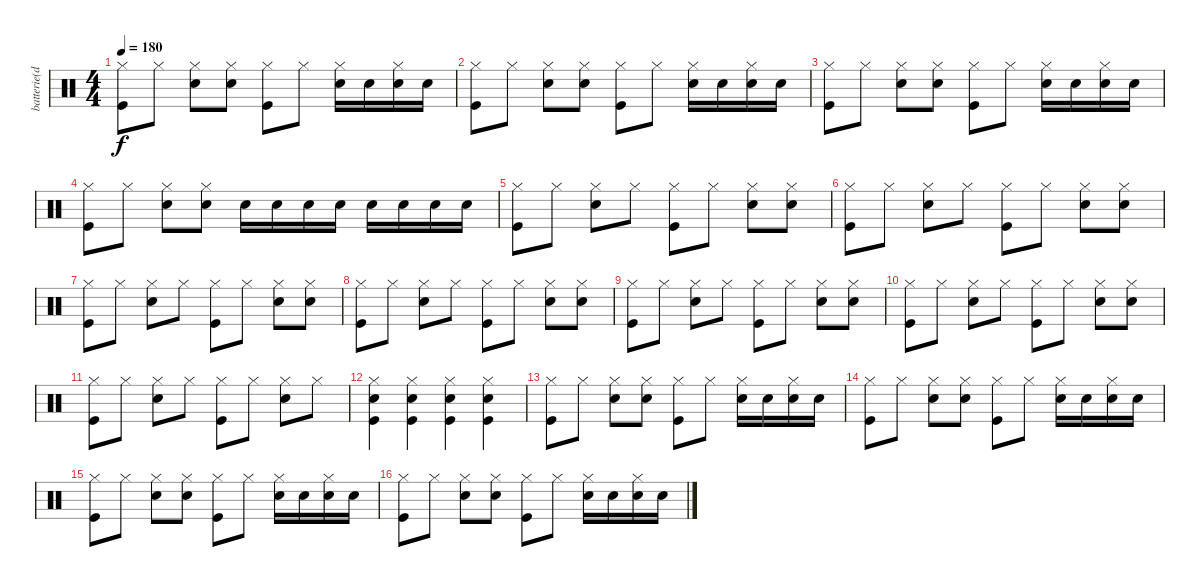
\track ("batterie(dave)" "batterie(d") {instrument percussion}
\staff {score}
\articulation defaults
\ts (4 4)
\tempo 180
\clef neutral
\ks c
("Hi-Hat (closed)" "Kick (hit)").8{dy f} "Hi-Hat (closed)".8 ("Hi-Hat (closed)" "Snare (hit) 2").8 ("Hi-Hat (closed)" "Snare (hit) 2").8 ("Hi-Hat (closed)" "Kick (hit)").8 "Hi-Hat (closed)".8 ("Hi-Hat (closed)" "Snare (hit) 2").16 "Snare (hit) 2".16 ("Hi-Hat (closed)" "Snare (hit) 2").16 "Snare (hit) 2".16 |
("Hi-Hat (closed)" "Kick (hit)").8 "Hi-Hat (closed)".8 ("Hi-Hat (closed)" "Snare (hit) 2").8 ("Hi-Hat (closed)" "Snare (hit) 2").8 ("Hi-Hat (closed)" "Kick (hit)").8 "Hi-Hat (closed)".8 ("Hi-Hat (closed)" "Snare (hit) 2").16 "Snare (hit) 2".16 ("Hi-Hat (closed)" "Snare (hit) 2").16 "Snare (hit) 2".16 |
("Hi-Hat (closed)" "Kick (hit)").8 "Hi-Hat (closed)".8 ("Hi-Hat (closed)" "Snare (hit) 2").8 ("Hi-Hat (closed)" "Snare (hit) 2").8 ("Hi-Hat (closed)" "Kick (hit)").8 "Hi-Hat (closed)".8 ("Hi-Hat (closed)" "Snare (hit) 2").16 "Snare (hit) 2".16 ("Hi-Hat (closed)" "Snare (hit) 2").16 "Snare (hit) 2".16 |
("Hi-Hat (closed)" "Kick (hit)").8 "Hi-Hat (closed)".8 ("Hi-Hat (closed)" "Snare (hit) 2").8 ("Hi-Hat (closed)" "Snare (hit) 2").8 "Snare (hit) 2".16 "Snare (hit) 2".16 "Snare (hit) 2".16 "Snare (hit) 2".16 "Snare (hit) 2".16 "Snare (hit) 2".16 "Snare (hit) 2".16 "Snare (hit) 2".16 |
("Hi-Hat (closed)" "Kick (hit)").8 "Hi-Hat (closed)".8 ("Hi-Hat (closed)" "Snare (hit) 2").8 "Hi-Hat (closed)".8 ("Hi-Hat (closed)" "Kick (hit)").8 "Hi-Hat (closed)".8 ("Hi-Hat (closed)" "Snare (hit) 2").8 ("Hi-Hat (closed)" "Snare (hit) 2").8 |
("Hi-Hat (closed)" "Kick (hit)").8 "Hi-Hat (closed)".8 ("Hi-Hat (closed)" "Snare (hit) 2").8 "Hi-Hat (closed)".8 ("Hi-Hat (closed)" "Kick (hit)").8 "Hi-Hat (closed)".8 ("Hi-Hat (closed)" "Snare (hit) 2").8 ("Hi-Hat (closed)" "Snare (hit) 2").8 |
("Hi-Hat (closed)" "Kick (hit)").8 "Hi-Hat (closed)".8 ("Hi-Hat (closed)" "Snare (hit) 2").8 "Hi-Hat (closed)".8 ("Hi-Hat (closed)" "Kick (hit)").8 "Hi-Hat (closed)".8 ("Hi-Hat (closed)" "Snare (hit) 2").8 ("Hi-Hat (closed)" "Snare (hit) 2").8 |
("Hi-Hat (closed)" "Kick (hit)").8 "Hi-Hat (closed)".8 ("Hi-Hat (closed)" "Snare (hit) 2").8 "Hi-Hat (closed)".8 ("Hi-Hat (closed)" "Kick (hit)").8 "Hi-Hat (closed)".8 ("Hi-Hat (closed)" "Snare (hit) 2").8 ("Hi-Hat (closed)" "Snare (hit) 2").8 |
("Hi-Hat (closed)" "Kick (hit)").8 "Hi-Hat (closed)".8 ("Hi-Hat (closed)" "Snare (hit) 2").8 "Hi-Hat (closed)".8 ("Hi-Hat (closed)" "Kick (hit)").8 "Hi-Hat (closed)".8 ("Hi-Hat (closed)" "Snare (hit) 2").8 ("Hi-Hat (closed)" "Snare (hit) 2").8 |
("Hi-Hat (closed)" "Kick (hit)").8 "Hi-Hat (closed)".8 ("Hi-Hat (closed)" "Snare (hit) 2").8 "Hi-Hat (closed)".8 ("Hi-Hat (closed)" "Kick (hit)").8 "Hi-Hat (closed)".8 ("Hi-Hat (closed)" "Snare (hit) 2").8 ("Hi-Hat (closed)" "Snare (hit) 2").8 |
("Hi-Hat (closed)" "Kick (hit)").8 "Hi-Hat (closed)".8 ("Hi-Hat (closed)" "Snare (hit) 2").8 "Hi-Hat (closed)".8 ("Hi-Hat (closed)" "Kick (hit)").8 "Hi-Hat (closed)".8 ("Hi-Hat (closed)" "Snare (hit) 2").8 "Hi-Hat (closed)".8 |
("Hi-Hat (closed)" "Snare (hit) 2" "Kick (hit)").4 ("Hi-Hat (closed)" "Snare (hit) 2" "Kick (hit)").4 ("Hi-Hat (closed)" "Snare (hit) 2" "Kick (hit)").4 ("Hi-Hat (closed)" "Snare (hit) 2" "Kick (hit)").4 |
("Hi-Hat (closed)" "Kick (hit)").8 "Hi-Hat (closed)".8 ("Hi-Hat (closed)" "Snare (hit) 2").8 ("Hi-Hat (closed)" "Snare (hit) 2").8 ("Hi-Hat (closed)" "Kick (hit)").8 "Hi-Hat (closed)".8 ("Hi-Hat (closed)" "Snare (hit) 2").16 "Snare (hit) 2".16 ("Hi-Hat (closed)" "Snare (hit) 2").16 "Snare (hit) 2".16 |
("Hi-Hat (closed)" "Kick (hit)").8 "Hi-Hat (closed)".8 ("Hi-Hat (closed)" "Snare (hit) 2").8 ("Hi-Hat (closed)" "Snare (hit) 2").8 ("Hi-Hat (closed)" "Kick (hit)").8 "Hi-Hat (closed)".8 ("Hi-Hat (closed)" "Snare (hit) 2").16 "Snare (hit) 2".16 ("Hi-Hat (closed)" "Snare (hit) 2").16 "Snare (hit) 2".16 |
("Hi-Hat (closed)" "Kick (hit)").8 "Hi-Hat (closed)".8 ("Hi-Hat (closed)" "Snare (hit) 2").8 ("Hi-Hat (closed)" "Snare (hit) 2").8 ("Hi-Hat (closed)" "Kick (hit)").8 "Hi-Hat (closed)".8 ("Hi-Hat (closed)" "Snare (hit) 2").16 "Snare (hit) 2".16 ("Hi-Hat (closed)" "Snare (hit) 2").16 "Snare (hit) 2".16 |
("Hi-Hat (closed)" "Kick (hit)").8 "Hi-Hat (closed)".8 ("Hi-Hat (closed)" "Snare (hit) 2").8 ("Hi-Hat (closed)" "Snare (hit) 2").8 ("Hi-Hat (closed)" "Kick (hit)").8 "Hi-Hat (closed)".8 ("Hi-Hat (closed)" "Snare (hit) 2").16 "Snare (hit) 2".16 ("Hi-Hat (closed)" "Snare (hit) 2").16 "Snare (hit) 2".16
